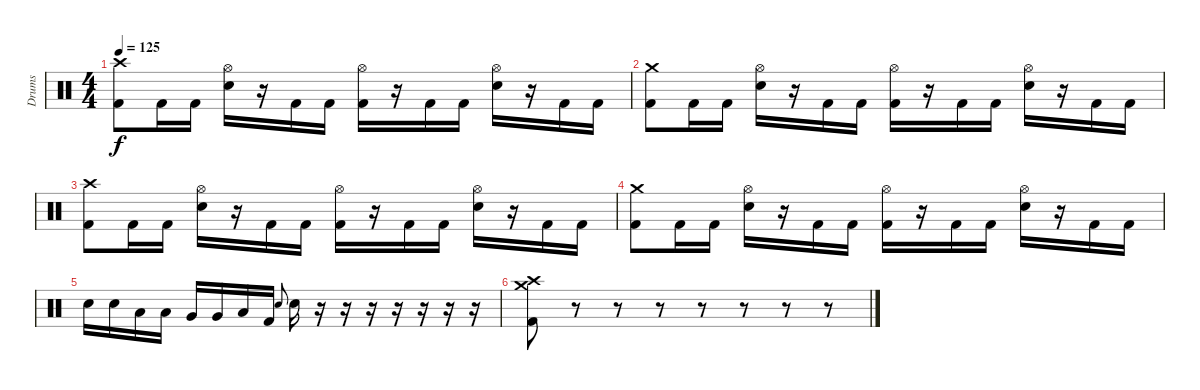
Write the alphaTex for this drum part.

\track ("Drums" "Drums") {instrument percussion}
\staff {score}
\articulation defaults
\ts (4 4)
\tempo 125
\clef neutral
\ks c
("Crash high (hit)" "Kick (hit) 2").8{dy f} "Kick (hit) 2".16 "Kick (hit) 2".16 ("Hi-Hat (open)" "Snare (hit) 2").16 r.16 "Kick (hit) 2".16 "Kick (hit) 2".16 ("Hi-Hat (open)" "Kick (hit) 2").16 r.16 "Kick (hit) 2".16 "Kick (hit) 2".16 ("Hi-Hat (open)" "Snare (hit) 2").16 r.16 "Kick (hit) 2".16 "Kick (hit) 2".16 |
("Crash medium (hit)" "Kick (hit) 2").8 "Kick (hit) 2".16 "Kick (hit) 2".16 ("Hi-Hat (open)" "Snare (hit) 2").16 r.16 "Kick (hit) 2".16 "Kick (hit) 2".16 ("Hi-Hat (open)" "Kick (hit) 2").16 r.16 "Kick (hit) 2".16 "Kick (hit) 2".16 ("Hi-Hat (open)" "Snare (hit) 2").16 r.16 "Kick (hit) 2".16 "Kick (hit) 2".16 |
("Crash high (hit)" "Kick (hit) 2").8 "Kick (hit) 2".16 "Kick (hit) 2".16 ("Hi-Hat (open)" "Snare (hit) 2").16 r.16 "Kick (hit) 2".16 "Kick (hit) 2".16 ("Hi-Hat (open)" "Kick (hit) 2").16 r.16 "Kick (hit) 2".16 "Kick (hit) 2".16 ("Hi-Hat (open)" "Snare (hit) 2").16 r.16 "Kick (hit) 2".16 "Kick (hit) 2".16 |
("Crash medium (hit)" "Kick (hit) 2").8 "Kick (hit) 2".16 "Kick (hit) 2".16 ("Hi-Hat (open)" "Snare (hit) 2").16 r.16 "Kick (hit) 2".16 "Kick (hit) 2".16 ("Hi-Hat (open)" "Kick (hit) 2").16 r.16 "Kick (hit) 2".16 "Kick (hit) 2".16 ("Hi-Hat (open)" "Snare (hit) 2").16 r.16 "Kick (hit) 2".16 "Kick (hit) 2".16 |
"Snare (hit) 2".16 "Snare (hit) 2".16 "Low Tom (hit)".16 "Low Tom (hit)".16 "Very Low Tom (hit)".16 "Very Low Tom (hit)".16 "Low Floor Tom (hit)".16 "Kick (hit) 2".16 "Snare (hit) 2".8{gr onbeat} "Snare (hit) 2".16 r.16 r.16 r.16 r.16 r.16 r.16 r.16 |
("Crash high (hit)" "Crash medium (hit)" "Kick (hit) 2").8 r.8 r.8 r.8 r.8 r.8 r.8 r.8
